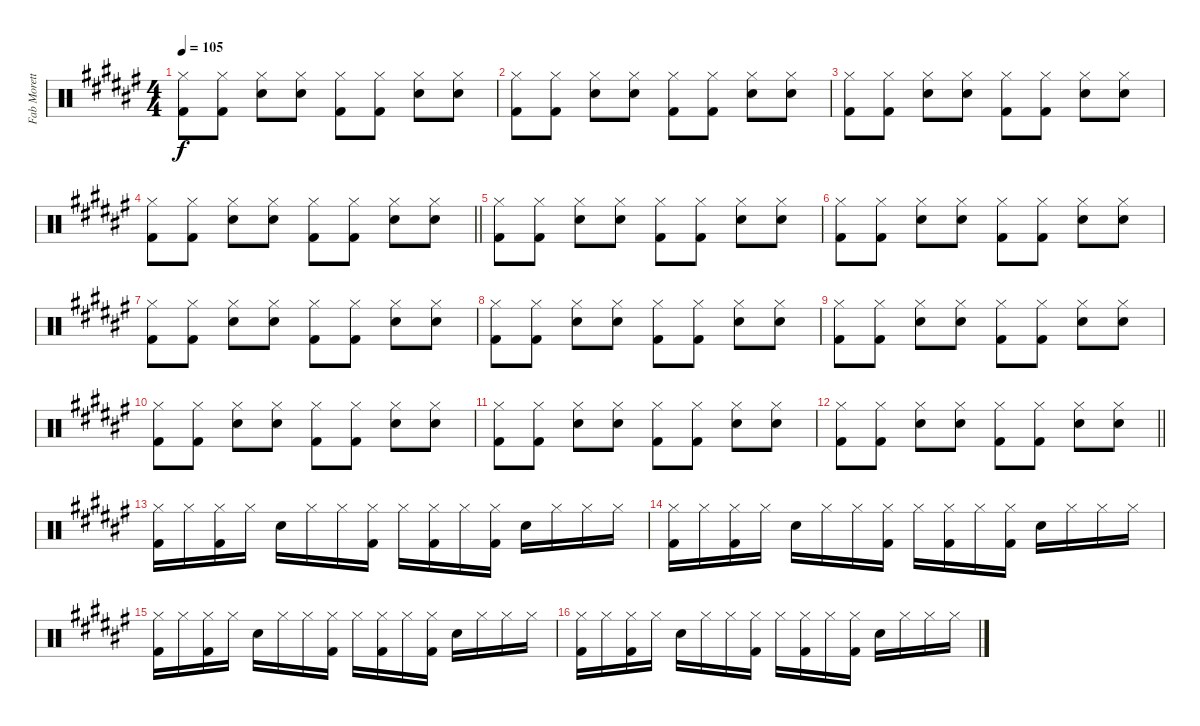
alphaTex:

\track ("Fab Moretti - Drums" "Fab Morett") {instrument percussion}
\staff {score}
\articulation defaults
\ts (4 4)
\tempo 105
\clef neutral
\ks f#
("Hi-Hat (closed)" "Kick (hit) 2").8{dy f} ("Hi-Hat (closed)" "Kick (hit) 2").8 ("Hi-Hat (closed)" "Snare (hit) 2").8 ("Hi-Hat (closed)" "Snare (hit) 2").8 ("Hi-Hat (closed)" "Kick (hit) 2").8 ("Hi-Hat (closed)" "Kick (hit) 2").8 ("Hi-Hat (closed)" "Snare (hit) 2").8 ("Hi-Hat (closed)" "Snare (hit) 2").8 |
("Hi-Hat (closed)" "Kick (hit) 2").8 ("Hi-Hat (closed)" "Kick (hit) 2").8 ("Hi-Hat (closed)" "Snare (hit) 2").8 ("Hi-Hat (closed)" "Snare (hit) 2").8 ("Hi-Hat (closed)" "Kick (hit) 2").8 ("Hi-Hat (closed)" "Kick (hit) 2").8 ("Hi-Hat (closed)" "Snare (hit) 2").8 ("Hi-Hat (closed)" "Snare (hit) 2").8 |
("Hi-Hat (closed)" "Kick (hit) 2").8 ("Hi-Hat (closed)" "Kick (hit) 2").8 ("Hi-Hat (closed)" "Snare (hit) 2").8 ("Hi-Hat (closed)" "Snare (hit) 2").8 ("Hi-Hat (closed)" "Kick (hit) 2").8 ("Hi-Hat (closed)" "Kick (hit) 2").8 ("Hi-Hat (closed)" "Snare (hit) 2").8 ("Hi-Hat (closed)" "Snare (hit) 2").8 |
\barLineRight lightlight
("Hi-Hat (closed)" "Kick (hit) 2").8 ("Hi-Hat (closed)" "Kick (hit) 2").8 ("Hi-Hat (closed)" "Snare (hit) 2").8 ("Hi-Hat (closed)" "Snare (hit) 2").8 ("Hi-Hat (closed)" "Kick (hit) 2").8 ("Hi-Hat (closed)" "Kick (hit) 2").8 ("Hi-Hat (closed)" "Snare (hit) 2").8 ("Hi-Hat (closed)" "Snare (hit) 2").8 |
("Hi-Hat (closed)" "Kick (hit) 2").8 ("Hi-Hat (closed)" "Kick (hit) 2").8 ("Hi-Hat (closed)" "Snare (hit) 2").8 ("Hi-Hat (closed)" "Snare (hit) 2").8 ("Hi-Hat (closed)" "Kick (hit) 2").8 ("Hi-Hat (closed)" "Kick (hit) 2").8 ("Hi-Hat (closed)" "Snare (hit) 2").8 ("Hi-Hat (closed)" "Snare (hit) 2").8 |
("Hi-Hat (closed)" "Kick (hit) 2").8 ("Hi-Hat (closed)" "Kick (hit) 2").8 ("Hi-Hat (closed)" "Snare (hit) 2").8 ("Hi-Hat (closed)" "Snare (hit) 2").8 ("Hi-Hat (closed)" "Kick (hit) 2").8 ("Hi-Hat (closed)" "Kick (hit) 2").8 ("Hi-Hat (closed)" "Snare (hit) 2").8 ("Hi-Hat (closed)" "Snare (hit) 2").8 |
("Hi-Hat (closed)" "Kick (hit) 2").8 ("Hi-Hat (closed)" "Kick (hit) 2").8 ("Hi-Hat (closed)" "Snare (hit) 2").8 ("Hi-Hat (closed)" "Snare (hit) 2").8 ("Hi-Hat (closed)" "Kick (hit) 2").8 ("Hi-Hat (closed)" "Kick (hit) 2").8 ("Hi-Hat (closed)" "Snare (hit) 2").8 ("Hi-Hat (closed)" "Snare (hit) 2").8 |
("Hi-Hat (closed)" "Kick (hit) 2").8 ("Hi-Hat (closed)" "Kick (hit) 2").8 ("Hi-Hat (closed)" "Snare (hit) 2").8 ("Hi-Hat (closed)" "Snare (hit) 2").8 ("Hi-Hat (closed)" "Kick (hit) 2").8 ("Hi-Hat (closed)" "Kick (hit) 2").8 ("Hi-Hat (closed)" "Snare (hit) 2").8 ("Hi-Hat (closed)" "Snare (hit) 2").8 |
("Hi-Hat (closed)" "Kick (hit) 2").8 ("Hi-Hat (closed)" "Kick (hit) 2").8 ("Hi-Hat (closed)" "Snare (hit) 2").8 ("Hi-Hat (closed)" "Snare (hit) 2").8 ("Hi-Hat (closed)" "Kick (hit) 2").8 ("Hi-Hat (closed)" "Kick (hit) 2").8 ("Hi-Hat (closed)" "Snare (hit) 2").8 ("Hi-Hat (closed)" "Snare (hit) 2").8 |
("Hi-Hat (closed)" "Kick (hit) 2").8 ("Hi-Hat (closed)" "Kick (hit) 2").8 ("Hi-Hat (closed)" "Snare (hit) 2").8 ("Hi-Hat (closed)" "Snare (hit) 2").8 ("Hi-Hat (closed)" "Kick (hit) 2").8 ("Hi-Hat (closed)" "Kick (hit) 2").8 ("Hi-Hat (closed)" "Snare (hit) 2").8 ("Hi-Hat (closed)" "Snare (hit) 2").8 |
("Hi-Hat (closed)" "Kick (hit) 2").8 ("Hi-Hat (closed)" "Kick (hit) 2").8 ("Hi-Hat (closed)" "Snare (hit) 2").8 ("Hi-Hat (closed)" "Snare (hit) 2").8 ("Hi-Hat (closed)" "Kick (hit) 2").8 ("Hi-Hat (closed)" "Kick (hit) 2").8 ("Hi-Hat (closed)" "Snare (hit) 2").8 ("Hi-Hat (closed)" "Snare (hit) 2").8 |
\barLineRight lightlight
("Hi-Hat (closed)" "Kick (hit) 2").8 ("Hi-Hat (closed)" "Kick (hit) 2").8 ("Hi-Hat (closed)" "Snare (hit) 2").8 ("Hi-Hat (closed)" "Snare (hit) 2").8 ("Hi-Hat (closed)" "Kick (hit) 2").8 ("Hi-Hat (closed)" "Kick (hit) 2").8 ("Hi-Hat (closed)" "Snare (hit) 2").8 ("Hi-Hat (closed)" "Snare (hit) 2").8 |
("Hi-Hat (closed)" "Kick (hit) 2").16 "Hi-Hat (closed)".16 ("Hi-Hat (closed)" "Kick (hit) 2").16 "Hi-Hat (closed)".16 "Snare (hit) 2".16 "Hi-Hat (closed)".16 "Hi-Hat (closed)".16 ("Hi-Hat (closed)" "Kick (hit) 2").16 "Hi-Hat (closed)".16 ("Hi-Hat (closed)" "Kick (hit) 2").16 "Hi-Hat (closed)".16 ("Hi-Hat (closed)" "Kick (hit) 2").16 "Snare (hit) 2".16 "Hi-Hat (closed)".16 "Hi-Hat (closed)".16 "Hi-Hat (closed)".16 |
("Hi-Hat (closed)" "Kick (hit) 2").16 "Hi-Hat (closed)".16 ("Hi-Hat (closed)" "Kick (hit) 2").16 "Hi-Hat (closed)".16 "Snare (hit) 2".16 "Hi-Hat (closed)".16 "Hi-Hat (closed)".16 ("Hi-Hat (closed)" "Kick (hit) 2").16 "Hi-Hat (closed)".16 ("Hi-Hat (closed)" "Kick (hit) 2").16 "Hi-Hat (closed)".16 ("Hi-Hat (closed)" "Kick (hit) 2").16 "Snare (hit) 2".16 "Hi-Hat (closed)".16 "Hi-Hat (closed)".16 "Hi-Hat (closed)".16 |
("Hi-Hat (closed)" "Kick (hit) 2").16 "Hi-Hat (closed)".16 ("Hi-Hat (closed)" "Kick (hit) 2").16 "Hi-Hat (closed)".16 "Snare (hit) 2".16 "Hi-Hat (closed)".16 "Hi-Hat (closed)".16 ("Hi-Hat (closed)" "Kick (hit) 2").16 "Hi-Hat (closed)".16 ("Hi-Hat (closed)" "Kick (hit) 2").16 "Hi-Hat (closed)".16 ("Hi-Hat (closed)" "Kick (hit) 2").16 "Snare (hit) 2".16 "Hi-Hat (closed)".16 "Hi-Hat (closed)".16 "Hi-Hat (closed)".16 |
("Hi-Hat (closed)" "Kick (hit) 2").16 "Hi-Hat (closed)".16 ("Hi-Hat (closed)" "Kick (hit) 2").16 "Hi-Hat (closed)".16 "Snare (hit) 2".16 "Hi-Hat (closed)".16 "Hi-Hat (closed)".16 ("Hi-Hat (closed)" "Kick (hit) 2").16 "Hi-Hat (closed)".16 ("Hi-Hat (closed)" "Kick (hit) 2").16 "Hi-Hat (closed)".16 ("Hi-Hat (closed)" "Kick (hit) 2").16 "Snare (hit) 2".16 "Hi-Hat (closed)".16 "Hi-Hat (closed)".16 "Hi-Hat (closed)".16
